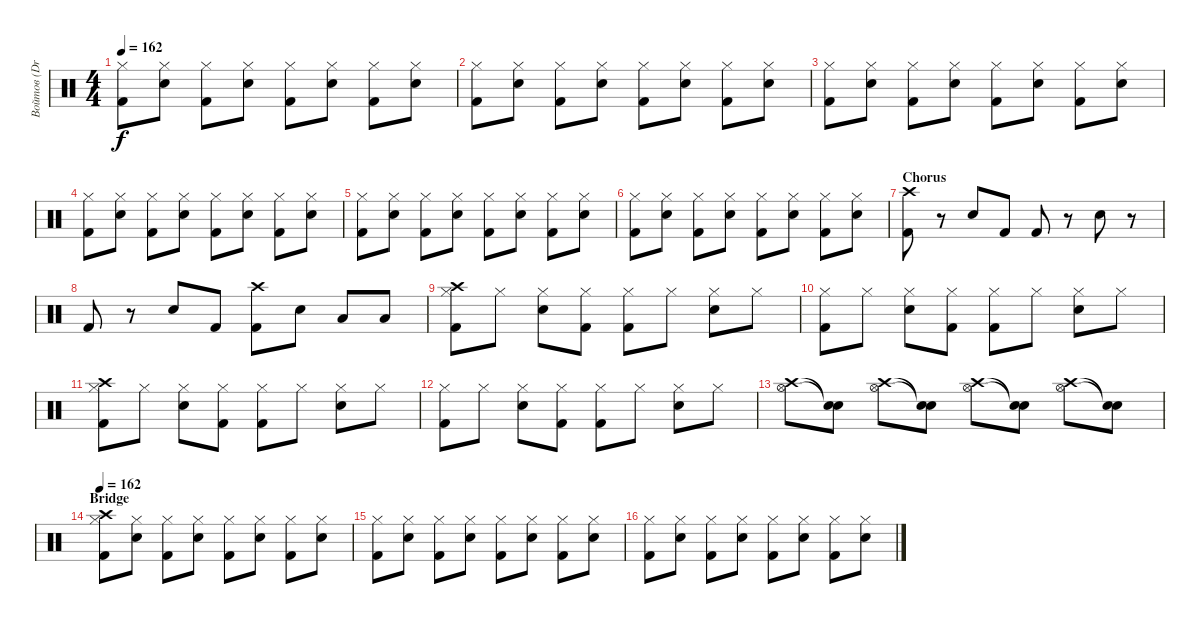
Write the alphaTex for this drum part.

\track ("Войтов (Drums)" "Войтов (Dr") {instrument percussion}
\staff {score}
\articulation defaults
\ts (4 4)
\tempo 162
\clef neutral
\ks c
("Hi-Hat (closed)" "Kick (hit) 2").8{dy f} ("Hi-Hat (closed)" "Electric Snare (hit)").8 ("Hi-Hat (closed)" "Kick (hit) 2").8 ("Hi-Hat (closed)" "Electric Snare (hit)").8 ("Hi-Hat (closed)" "Kick (hit) 2").8 ("Hi-Hat (closed)" "Electric Snare (hit)").8 ("Hi-Hat (closed)" "Kick (hit) 2").8 ("Hi-Hat (closed)" "Electric Snare (hit)").8 |
("Hi-Hat (closed)" "Kick (hit) 2").8 ("Hi-Hat (closed)" "Electric Snare (hit)").8 ("Hi-Hat (closed)" "Kick (hit) 2").8 ("Hi-Hat (closed)" "Electric Snare (hit)").8 ("Hi-Hat (closed)" "Kick (hit) 2").8 ("Hi-Hat (closed)" "Electric Snare (hit)").8 ("Hi-Hat (closed)" "Kick (hit) 2").8 ("Hi-Hat (closed)" "Electric Snare (hit)").8 |
("Hi-Hat (closed)" "Kick (hit) 2").8 ("Hi-Hat (closed)" "Electric Snare (hit)").8 ("Hi-Hat (closed)" "Kick (hit) 2").8 ("Hi-Hat (closed)" "Electric Snare (hit)").8 ("Hi-Hat (closed)" "Kick (hit) 2").8 ("Hi-Hat (closed)" "Electric Snare (hit)").8 ("Hi-Hat (closed)" "Kick (hit) 2").8 ("Hi-Hat (closed)" "Electric Snare (hit)").8 |
("Hi-Hat (closed)" "Kick (hit) 2").8 ("Hi-Hat (closed)" "Electric Snare (hit)").8 ("Hi-Hat (closed)" "Kick (hit) 2").8 ("Hi-Hat (closed)" "Electric Snare (hit)").8 ("Hi-Hat (closed)" "Kick (hit) 2").8 ("Hi-Hat (closed)" "Electric Snare (hit)").8 ("Hi-Hat (closed)" "Kick (hit) 2").8 ("Hi-Hat (closed)" "Electric Snare (hit)").8 |
("Hi-Hat (closed)" "Kick (hit) 2").8 ("Hi-Hat (closed)" "Electric Snare (hit)").8 ("Hi-Hat (closed)" "Kick (hit) 2").8 ("Hi-Hat (closed)" "Electric Snare (hit)").8 ("Hi-Hat (closed)" "Kick (hit) 2").8 ("Hi-Hat (closed)" "Electric Snare (hit)").8 ("Hi-Hat (closed)" "Kick (hit) 2").8 ("Hi-Hat (closed)" "Electric Snare (hit)").8 |
("Hi-Hat (closed)" "Kick (hit) 2").8 ("Hi-Hat (closed)" "Electric Snare (hit)").8 ("Hi-Hat (closed)" "Kick (hit) 2").8 ("Hi-Hat (closed)" "Electric Snare (hit)").8 ("Hi-Hat (closed)" "Kick (hit) 2").8 ("Hi-Hat (closed)" "Electric Snare (hit)").8 ("Hi-Hat (closed)" "Kick (hit) 2").8 ("Hi-Hat (closed)" "Electric Snare (hit)").8 |
\section ("" "Chorus")
("Kick (hit) 2" "Crash high (hit)").8 r.8 "Electric Snare (hit)".8 "Kick (hit) 2".8 "Kick (hit) 2".8 r.8 "Electric Snare (hit)".8 r.8 |
"Kick (hit) 2".8 r.8 "Electric Snare (hit)".8 "Kick (hit) 2".8 ("Kick (hit) 2" "Crash high (hit)").8 "Electric Snare (hit)".8 "Low Tom (hit)".8 "Low Tom (hit)".8 |
("Kick (hit) 2" "Hi-Hat (closed)" "Crash high (hit)").8 "Hi-Hat (closed)".8 ("Electric Snare (hit)" "Hi-Hat (closed)").8 ("Kick (hit) 2" "Hi-Hat (closed)").8 ("Kick (hit) 2" "Hi-Hat (closed)").8 "Hi-Hat (closed)".8 ("Electric Snare (hit)" "Hi-Hat (closed)").8 "Hi-Hat (closed)".8 |
("Kick (hit) 2" "Hi-Hat (closed)").8 "Hi-Hat (closed)".8 ("Electric Snare (hit)" "Hi-Hat (closed)").8 ("Kick (hit) 2" "Hi-Hat (closed)").8 ("Kick (hit) 2" "Hi-Hat (closed)").8 "Hi-Hat (closed)".8 ("Electric Snare (hit)" "Hi-Hat (closed)").8 "Hi-Hat (closed)".8 |
("Kick (hit) 2" "Hi-Hat (closed)" "Crash high (hit)").8 "Hi-Hat (closed)".8 ("Electric Snare (hit)" "Hi-Hat (closed)").8 ("Kick (hit) 2" "Hi-Hat (closed)").8 ("Kick (hit) 2" "Hi-Hat (closed)").8 "Hi-Hat (closed)".8 ("Electric Snare (hit)" "Hi-Hat (closed)").8 "Hi-Hat (closed)".8 |
("Kick (hit) 2" "Hi-Hat (closed)").8 "Hi-Hat (closed)".8 ("Electric Snare (hit)" "Hi-Hat (closed)").8 ("Kick (hit) 2" "Hi-Hat (closed)").8 ("Kick (hit) 2" "Hi-Hat (closed)").8 "Hi-Hat (closed)".8 ("Electric Snare (hit)" "Hi-Hat (closed)").8 "Hi-Hat (closed)".8 |
("Hi-Hat (open)" "Crash high (hit)").8 ("Snare (hit)"{t} "Snare (hit)"{t}).8 ("Hi-Hat (open)" "Crash high (hit)").8 ("Snare (hit)"{t} "Snare (hit)"{t}).8 ("Hi-Hat (open)" "Crash high (hit)").8 ("Snare (hit)"{t} "Snare (hit)"{t}).8 ("Hi-Hat (open)" "Crash high (hit)").8 ("Snare (hit)"{t} "Snare (hit)"{t}).8 |
\section ("" "Bridge")
\tempo 162
("Hi-Hat (closed)" "Kick (hit) 2" "Crash high (hit)").8 ("Hi-Hat (closed)" "Electric Snare (hit)").8 ("Hi-Hat (closed)" "Kick (hit) 2").8 ("Hi-Hat (closed)" "Electric Snare (hit)").8 ("Hi-Hat (closed)" "Kick (hit) 2").8 ("Hi-Hat (closed)" "Electric Snare (hit)").8 ("Hi-Hat (closed)" "Kick (hit) 2").8 ("Hi-Hat (closed)" "Electric Snare (hit)").8 |
("Hi-Hat (closed)" "Kick (hit) 2").8 ("Hi-Hat (closed)" "Electric Snare (hit)").8 ("Hi-Hat (closed)" "Kick (hit) 2").8 ("Hi-Hat (closed)" "Electric Snare (hit)").8 ("Hi-Hat (closed)" "Kick (hit) 2").8 ("Hi-Hat (closed)" "Electric Snare (hit)").8 ("Hi-Hat (closed)" "Kick (hit) 2").8 ("Hi-Hat (closed)" "Electric Snare (hit)").8 |
("Hi-Hat (closed)" "Kick (hit) 2").8 ("Hi-Hat (closed)" "Electric Snare (hit)").8 ("Hi-Hat (closed)" "Kick (hit) 2").8 ("Hi-Hat (closed)" "Electric Snare (hit)").8 ("Hi-Hat (closed)" "Kick (hit) 2").8 ("Hi-Hat (closed)" "Electric Snare (hit)").8 ("Hi-Hat (closed)" "Kick (hit) 2").8 ("Hi-Hat (closed)" "Electric Snare (hit)").8
